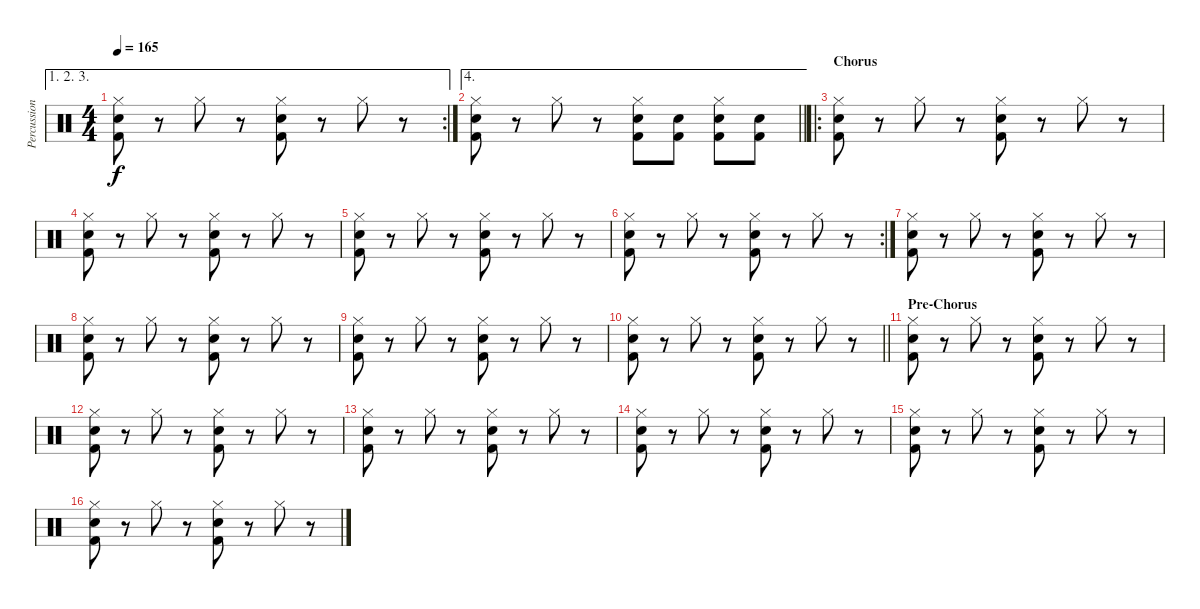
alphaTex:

\track ("Percussion" "Percussion") {instrument percussion}
\staff {score}
\articulation defaults
\ae (1 2 3)
\rc 2
\ts (4 4)
\tempo 165
\clef neutral
\ks c
("Snare (hit) 2" "Kick (hit) 2" "Hi-Hat (closed)").8{dy f} r.8 "Hi-Hat (closed)".8 r.8 ("Snare (hit) 2" "Kick (hit) 2" "Hi-Hat (closed)").8 r.8 "Hi-Hat (closed)".8 r.8 |
\ae 4
\barLineRight lightlight
("Snare (hit) 2" "Kick (hit) 2" "Hi-Hat (closed)").8 r.8 "Hi-Hat (closed)".8 r.8 ("Snare (hit) 2" "Kick (hit) 2" "Hi-Hat (closed)").8 ("Snare (hit) 2" "Kick (hit) 2").8 ("Snare (hit) 2" "Kick (hit) 2" "Hi-Hat (closed)").8 ("Snare (hit) 2" "Kick (hit) 2").8 |
\ro
\section ("" "Chorus")
("Snare (hit) 2" "Kick (hit) 2" "Hi-Hat (closed)").8 r.8 "Hi-Hat (closed)".8 r.8 ("Snare (hit) 2" "Kick (hit) 2" "Hi-Hat (closed)").8 r.8 "Hi-Hat (closed)".8 r.8 |
("Snare (hit) 2" "Kick (hit) 2" "Hi-Hat (closed)").8 r.8 "Hi-Hat (closed)".8 r.8 ("Snare (hit) 2" "Kick (hit) 2" "Hi-Hat (closed)").8 r.8 "Hi-Hat (closed)".8 r.8 |
("Snare (hit) 2" "Kick (hit) 2" "Hi-Hat (closed)").8 r.8 "Hi-Hat (closed)".8 r.8 ("Snare (hit) 2" "Kick (hit) 2" "Hi-Hat (closed)").8 r.8 "Hi-Hat (closed)".8 r.8 |
\rc 2
("Snare (hit) 2" "Kick (hit) 2" "Hi-Hat (closed)").8 r.8 "Hi-Hat (closed)".8 r.8 ("Snare (hit) 2" "Kick (hit) 2" "Hi-Hat (closed)").8 r.8 "Hi-Hat (closed)".8 r.8 |
("Snare (hit) 2" "Kick (hit) 2" "Hi-Hat (closed)").8 r.8 "Hi-Hat (closed)".8 r.8 ("Snare (hit) 2" "Kick (hit) 2" "Hi-Hat (closed)").8 r.8 "Hi-Hat (closed)".8 r.8 |
("Snare (hit) 2" "Kick (hit) 2" "Hi-Hat (closed)").8 r.8 "Hi-Hat (closed)".8 r.8 ("Snare (hit) 2" "Kick (hit) 2" "Hi-Hat (closed)").8 r.8 "Hi-Hat (closed)".8 r.8 |
("Snare (hit) 2" "Kick (hit) 2" "Hi-Hat (closed)").8 r.8 "Hi-Hat (closed)".8 r.8 ("Snare (hit) 2" "Kick (hit) 2" "Hi-Hat (closed)").8 r.8 "Hi-Hat (closed)".8 r.8 |
\barLineRight lightlight
("Snare (hit) 2" "Kick (hit) 2" "Hi-Hat (closed)").8 r.8 "Hi-Hat (closed)".8 r.8 ("Snare (hit) 2" "Kick (hit) 2" "Hi-Hat (closed)").8 r.8 "Hi-Hat (closed)".8 r.8 |
\section ("" "Pre-Chorus")
("Snare (hit) 2" "Kick (hit) 2" "Hi-Hat (closed)").8 r.8 "Hi-Hat (closed)".8 r.8 ("Snare (hit) 2" "Kick (hit) 2" "Hi-Hat (closed)").8 r.8 "Hi-Hat (closed)".8 r.8 |
("Snare (hit) 2" "Kick (hit) 2" "Hi-Hat (closed)").8 r.8 "Hi-Hat (closed)".8 r.8 ("Snare (hit) 2" "Kick (hit) 2" "Hi-Hat (closed)").8 r.8 "Hi-Hat (closed)".8 r.8 |
("Snare (hit) 2" "Kick (hit) 2" "Hi-Hat (closed)").8 r.8 "Hi-Hat (closed)".8 r.8 ("Snare (hit) 2" "Kick (hit) 2" "Hi-Hat (closed)").8 r.8 "Hi-Hat (closed)".8 r.8 |
("Snare (hit) 2" "Kick (hit) 2" "Hi-Hat (closed)").8 r.8 "Hi-Hat (closed)".8 r.8 ("Snare (hit) 2" "Kick (hit) 2" "Hi-Hat (closed)").8 r.8 "Hi-Hat (closed)".8 r.8 |
("Snare (hit) 2" "Kick (hit) 2" "Hi-Hat (closed)").8 r.8 "Hi-Hat (closed)".8 r.8 ("Snare (hit) 2" "Kick (hit) 2" "Hi-Hat (closed)").8 r.8 "Hi-Hat (closed)".8 r.8 |
("Snare (hit) 2" "Kick (hit) 2" "Hi-Hat (closed)").8 r.8 "Hi-Hat (closed)".8 r.8 ("Snare (hit) 2" "Kick (hit) 2" "Hi-Hat (closed)").8 r.8 "Hi-Hat (closed)".8 r.8
